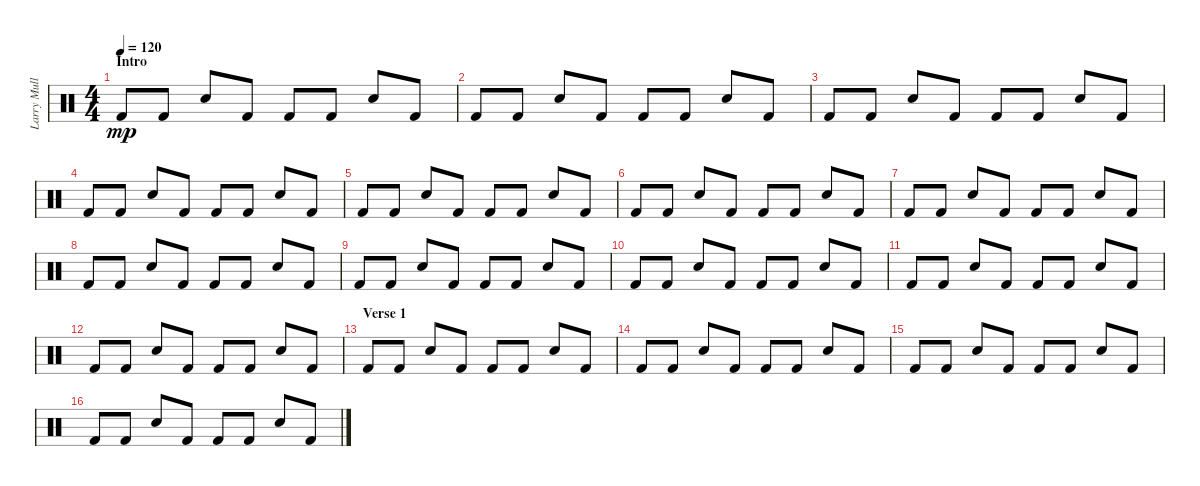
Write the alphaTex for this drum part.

\track ("Larry Mullen Jr" "Larry Mull") {instrument percussion}
\staff {score}
\articulation defaults
\ts (4 4)
\section ("" "Intro")
\tempo 120
\clef neutral
\ks c "Kick (hit) 2".8{dy mp volume 16} "Kick (hit) 2".8 "Snare (hit) 2".8 "Kick (hit) 2".8 "Kick (hit) 2".8 "Kick (hit) 2".8 "Snare (hit) 2".8 "Kick (hit) 2".8
|
"Kick (hit) 2".8 "Kick (hit) 2".8 "Snare (hit) 2".8 "Kick (hit) 2".8 "Kick (hit) 2".8 "Kick (hit) 2".8 "Snare (hit) 2".8 "Kick (hit) 2".8 |
"Kick (hit) 2".8 "Kick (hit) 2".8 "Snare (hit) 2".8 "Kick (hit) 2".8 "Kick (hit) 2".8 "Kick (hit) 2".8 "Snare (hit) 2".8 "Kick (hit) 2".8 |
"Kick (hit) 2".8 "Kick (hit) 2".8 "Snare (hit) 2".8 "Kick (hit) 2".8 "Kick (hit) 2".8 "Kick (hit) 2".8 "Snare (hit) 2".8 "Kick (hit) 2".8 |
"Kick (hit) 2".8 "Kick (hit) 2".8 "Snare (hit) 2".8 "Kick (hit) 2".8 "Kick (hit) 2".8 "Kick (hit) 2".8 "Snare (hit) 2".8 "Kick (hit) 2".8 |
"Kick (hit) 2".8 "Kick (hit) 2".8 "Snare (hit) 2".8 "Kick (hit) 2".8 "Kick (hit) 2".8 "Kick (hit) 2".8 "Snare (hit) 2".8 "Kick (hit) 2".8 |
"Kick (hit) 2".8 "Kick (hit) 2".8 "Snare (hit) 2".8 "Kick (hit) 2".8 "Kick (hit) 2".8 "Kick (hit) 2".8 "Snare (hit) 2".8 "Kick (hit) 2".8 |
"Kick (hit) 2".8 "Kick (hit) 2".8 "Snare (hit) 2".8 "Kick (hit) 2".8 "Kick (hit) 2".8 "Kick (hit) 2".8 "Snare (hit) 2".8 "Kick (hit) 2".8 |
"Kick (hit) 2".8 "Kick (hit) 2".8 "Snare (hit) 2".8 "Kick (hit) 2".8 "Kick (hit) 2".8 "Kick (hit) 2".8 "Snare (hit) 2".8 "Kick (hit) 2".8 |
"Kick (hit) 2".8 "Kick (hit) 2".8 "Snare (hit) 2".8 "Kick (hit) 2".8 "Kick (hit) 2".8 "Kick (hit) 2".8 "Snare (hit) 2".8 "Kick (hit) 2".8 |
"Kick (hit) 2".8 "Kick (hit) 2".8 "Snare (hit) 2".8 "Kick (hit) 2".8 "Kick (hit) 2".8 "Kick (hit) 2".8 "Snare (hit) 2".8 "Kick (hit) 2".8 |
"Kick (hit) 2".8 "Kick (hit) 2".8 "Snare (hit) 2".8 "Kick (hit) 2".8 "Kick (hit) 2".8 "Kick (hit) 2".8 "Snare (hit) 2".8 "Kick (hit) 2".8 |
\section ("" "Verse 1")
"Kick (hit) 2".8 "Kick (hit) 2".8 "Snare (hit) 2".8 "Kick (hit) 2".8 "Kick (hit) 2".8 "Kick (hit) 2".8 "Snare (hit) 2".8 "Kick (hit) 2".8 |
"Kick (hit) 2".8 "Kick (hit) 2".8 "Snare (hit) 2".8 "Kick (hit) 2".8 "Kick (hit) 2".8 "Kick (hit) 2".8 "Snare (hit) 2".8 "Kick (hit) 2".8 |
"Kick (hit) 2".8 "Kick (hit) 2".8 "Snare (hit) 2".8 "Kick (hit) 2".8 "Kick (hit) 2".8 "Kick (hit) 2".8 "Snare (hit) 2".8 "Kick (hit) 2".8 |
"Kick (hit) 2".8 "Kick (hit) 2".8 "Snare (hit) 2".8 "Kick (hit) 2".8 "Kick (hit) 2".8 "Kick (hit) 2".8 "Snare (hit) 2".8 "Kick (hit) 2".8
